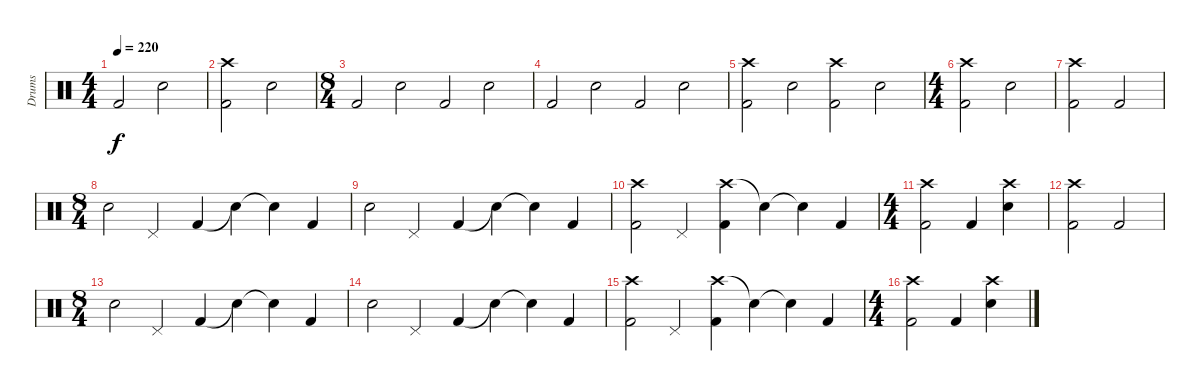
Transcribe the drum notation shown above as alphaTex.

\track ("Drums" "Drums") {instrument percussion}
\staff {score}
\articulation defaults
\ts (4 4)
\tempo 220
\clef neutral
\ks c "Kick (hit) 2".2{dy f} "Electric Snare (hit)".2
|
("Kick (hit) 2" "Crash high (hit)").2 "Electric Snare (hit)".2 |
\ts (8 4)
"Kick (hit) 2".2 "Electric Snare (hit)".2 "Kick (hit) 2".2 "Electric Snare (hit)".2 |
"Kick (hit) 2".2 "Electric Snare (hit)".2 "Kick (hit) 2".2 "Electric Snare (hit)".2 |
("Kick (hit) 2" "Crash high (hit)").2 "Electric Snare (hit)".2 ("Kick (hit) 2" "Crash high (hit)").2 "Electric Snare (hit)".2 |
\ts (4 4)
("Kick (hit) 2" "Crash high (hit)").2 "Electric Snare (hit)".2 |
("Kick (hit) 2" "Crash high (hit)").2 "Kick (hit) 2".2 |
\ts (8 4)
"Electric Snare (hit)".2 "Pedal Hi-Hat (hit)".2 "Kick (hit) 2".4 "Snare (hit)"{t}.4 "Snare (hit)"{t}.4 "Kick (hit) 2".4 |
"Electric Snare (hit)".2 "Pedal Hi-Hat (hit)".2 "Kick (hit) 2".4 "Snare (hit)"{t}.4 "Snare (hit)"{t}.4 "Kick (hit) 2".4 |
("Crash high (hit)" "Kick (hit) 2").2 "Pedal Hi-Hat (hit)".2 ("Crash high (hit)" "Kick (hit) 2").4 "Snare (hit)"{t}.4 "Snare (hit)"{t}.4 "Kick (hit) 2".4 |
\ts (4 4)
("Crash high (hit)" "Kick (hit) 2").2 "Kick (hit) 2".4 ("Crash high (hit)" "Electric Snare (hit)").4 |
("Kick (hit) 2" "Crash high (hit)").2 "Kick (hit) 2".2 |
\ts (8 4)
"Electric Snare (hit)".2 "Pedal Hi-Hat (hit)".2 "Kick (hit) 2".4 "Snare (hit)"{t}.4 "Snare (hit)"{t}.4 "Kick (hit) 2".4 |
"Electric Snare (hit)".2 "Pedal Hi-Hat (hit)".2 "Kick (hit) 2".4 "Snare (hit)"{t}.4 "Snare (hit)"{t}.4 "Kick (hit) 2".4 |
("Crash high (hit)" "Kick (hit) 2").2 "Pedal Hi-Hat (hit)".2 ("Crash high (hit)" "Kick (hit) 2").4 "Snare (hit)"{t}.4 "Snare (hit)"{t}.4 "Kick (hit) 2".4 |
\ts (4 4)
("Crash high (hit)" "Kick (hit) 2").2 "Kick (hit) 2".4 ("Crash high (hit)" "Electric Snare (hit)").4
